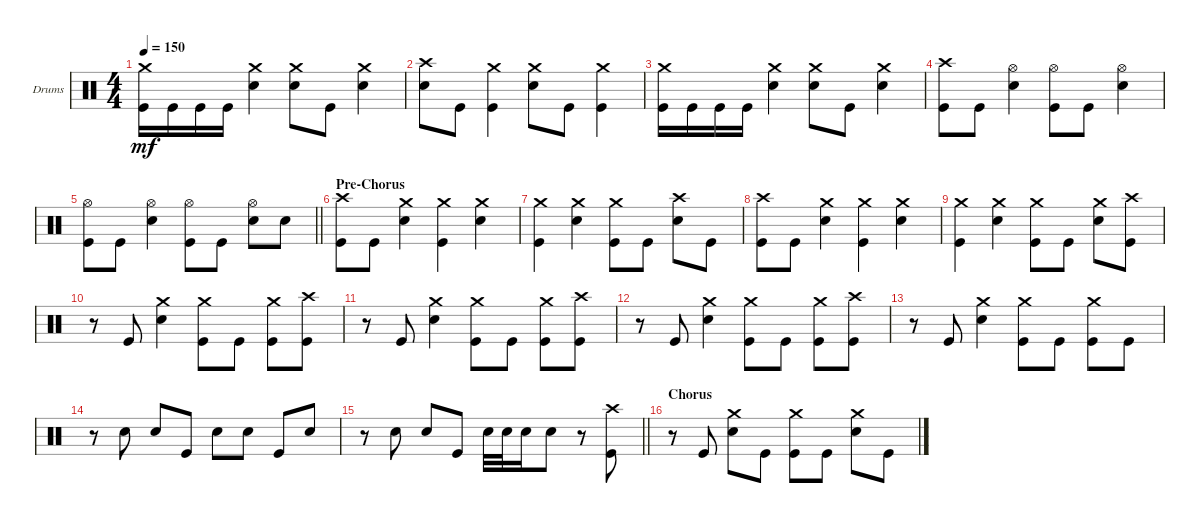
\defaultSystemsLayout 4
\bracketExtendMode groupsimilarinstruments
\firstSystemTrackNameOrientation horizontal
\otherSystemsTrackNameOrientation horizontal
\track ("Drums" "Drums") {instrument percussion}
\staff {score}
\articulation defaults
\ts (4 4)
\tempo 150
\clef neutral
\ks c
("Kick (hit)" "Crash medium (hit)").16{dy mf} "Kick (hit)".16 "Kick (hit)".16 "Kick (hit)".16 ("Snare (hit) 2" "Crash medium (hit)").4 ("Crash medium (hit)" "Snare (hit) 2").8 "Kick (hit)".8 ("Snare (hit) 2" "Crash medium (hit)").4 |
("Crash high (hit)" "Snare (hit) 2").8 "Kick (hit)".8 ("Crash medium (hit)" "Kick (hit)").4 ("Crash medium (hit)" "Snare (hit) 2").8 "Kick (hit)".8 ("Crash medium (hit)" "Kick (hit)").4 |
("Kick (hit)" "Crash medium (hit)").16 "Kick (hit)".16 "Kick (hit)".16 "Kick (hit)".16 ("Snare (hit) 2" "Crash medium (hit)").4 ("Crash medium (hit)" "Snare (hit) 2").8 "Kick (hit)".8 ("Snare (hit) 2" "Crash medium (hit)").4 |
("Kick (hit)" "Crash high (hit)").8 "Kick (hit)".8 ("Snare (hit) 2" "Hi-Hat (open)").4 ("Kick (hit)" "Hi-Hat (open)").8 "Kick (hit)".8 ("Snare (hit) 2" "Hi-Hat (open)").4 |
\barLineRight lightlight
("Kick (hit)" "Hi-Hat (open)").8 "Kick (hit)".8 ("Snare (hit) 2" "Hi-Hat (open)").4 ("Kick (hit)" "Hi-Hat (open)").8 "Kick (hit)".8 ("Snare (hit) 2" "Hi-Hat (open)").8 "Snare (hit) 2".8 |
\section ("" "Pre-Chorus")
("Kick (hit)" "Crash high (hit)").8 "Kick (hit)".8 ("Snare (hit) 2" "Crash medium (hit)").4 ("Kick (hit)" "Crash medium (hit)").4 ("Snare (hit) 2" "Crash medium (hit)").4 |
("Kick (hit)" "Crash medium (hit)").4 ("Snare (hit) 2" "Crash medium (hit)").4 ("Kick (hit)" "Crash medium (hit)").8 "Kick (hit)".8 ("Snare (hit) 2" "Crash high (hit)").8 "Kick (hit)".8 |
("Kick (hit)" "Crash high (hit)").8 "Kick (hit)".8 ("Snare (hit) 2" "Crash medium (hit)").4 ("Kick (hit)" "Crash medium (hit)").4 ("Snare (hit) 2" "Crash medium (hit)").4 |
("Kick (hit)" "Crash medium (hit)").4 ("Snare (hit) 2" "Crash medium (hit)").4 ("Kick (hit)" "Crash medium (hit)").8 "Kick (hit)".8 ("Snare (hit) 2" "Crash medium (hit)").8 ("Kick (hit)" "Crash high (hit)").8 |
r.8 "Kick (hit)".8 ("Snare (hit) 2" "Crash medium (hit)").4 ("Kick (hit)" "Crash medium (hit)").8 "Kick (hit)".8 ("Kick (hit)" "Crash medium (hit)").8 ("Kick (hit)" "Crash high (hit)").8 |
r.8 "Kick (hit)".8 ("Snare (hit) 2" "Crash medium (hit)").4 ("Kick (hit)" "Crash medium (hit)").8 "Kick (hit)".8 ("Kick (hit)" "Crash medium (hit)").8 ("Kick (hit)" "Crash high (hit)").8 |
r.8 "Kick (hit)".8 ("Snare (hit) 2" "Crash medium (hit)").4 ("Kick (hit)" "Crash medium (hit)").8 "Kick (hit)".8 ("Kick (hit)" "Crash medium (hit)").8 ("Kick (hit)" "Crash high (hit)").8 |
r.8 "Kick (hit)".8 ("Snare (hit) 2" "Crash medium (hit)").4 ("Kick (hit)" "Crash medium (hit)").8 "Kick (hit)".8 ("Kick (hit)" "Crash medium (hit)").8 "Kick (hit)".8 |
r.8 "Snare (hit) 2".8 "Snare (hit) 2".8 "Kick (hit)".8 "Snare (hit) 2".8 "Snare (hit) 2".8 "Kick (hit)".8 "Snare (hit) 2".8 |
\barLineRight lightlight
r.8 "Snare (hit) 2".8 "Snare (hit) 2".8 "Kick (hit)".8 "Snare (hit) 2".32 "Snare (hit) 2".32 "Snare (hit) 2".16 "Snare (hit) 2".8 r.8 ("Kick (hit)" "Crash high (hit)").8 |
\section ("" "Chorus")
r.8 "Kick (hit)".8 ("Snare (hit) 2" "Crash medium (hit)").8 "Kick (hit)".8 ("Kick (hit)" "Crash medium (hit)").8 "Kick (hit)".8 ("Snare (hit) 2" "Crash medium (hit)").8 "Kick (hit)".8
